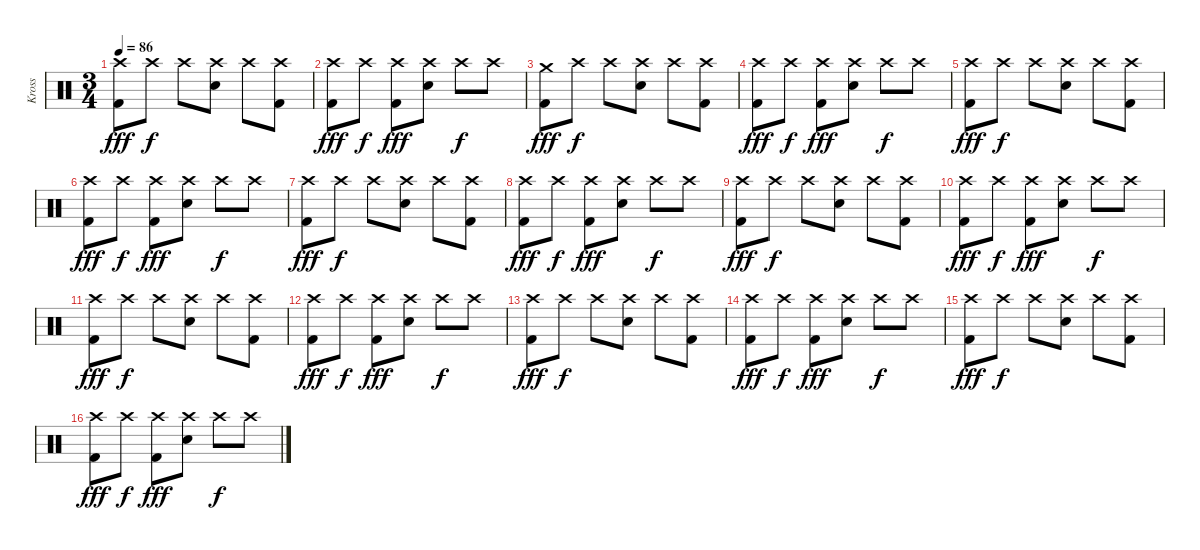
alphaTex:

\track ("Kross" "Kross") {instrument percussion}
\staff {score}
\articulation defaults
\ts (3 4)
\tempo 86
\clef neutral
\ks c
("Crash high (hit)" "Kick (hit) 2").8{dy fff} "Crash high (hit)".8{dy f} "Crash high (hit)".8 ("Crash high (hit)" "Electric Snare (hit)").8 "Crash high (hit)".8 ("Crash high (hit)" "Kick (hit) 2").8 |
("Crash high (hit)" "Kick (hit) 2").8{dy fff} "Crash high (hit)".8{dy f} ("Crash high (hit)" "Kick (hit) 2").8{dy fff} ("Crash high (hit)" "Electric Snare (hit)").8 "Crash high (hit)".8{dy f} "Crash high (hit)".8 |
("Crash medium (hit)" "Kick (hit) 2").8{dy fff} "Crash high (hit)".8{dy f} "Crash high (hit)".8 ("Crash high (hit)" "Electric Snare (hit)").8 "Crash high (hit)".8 ("Crash high (hit)" "Kick (hit) 2").8 |
("Crash high (hit)" "Kick (hit) 2").8{dy fff} "Crash high (hit)".8{dy f} ("Crash high (hit)" "Kick (hit) 2").8{dy fff} ("Crash high (hit)" "Electric Snare (hit)").8 "Crash high (hit)".8{dy f} "Crash high (hit)".8 |
("Crash high (hit)" "Kick (hit) 2").8{dy fff} "Crash high (hit)".8{dy f} "Crash high (hit)".8 ("Crash high (hit)" "Electric Snare (hit)").8 "Crash high (hit)".8 ("Crash high (hit)" "Kick (hit) 2").8 |
("Crash high (hit)" "Kick (hit) 2").8{dy fff} "Crash high (hit)".8{dy f} ("Crash high (hit)" "Kick (hit) 2").8{dy fff} ("Crash high (hit)" "Electric Snare (hit)").8 "Crash high (hit)".8{dy f} "Crash high (hit)".8 |
("Crash high (hit)" "Kick (hit) 2").8{dy fff} "Crash high (hit)".8{dy f} "Crash high (hit)".8 ("Crash high (hit)" "Electric Snare (hit)").8 "Crash high (hit)".8 ("Crash high (hit)" "Kick (hit) 2").8 |
("Crash high (hit)" "Kick (hit) 2").8{dy fff} "Crash high (hit)".8{dy f} ("Crash high (hit)" "Kick (hit) 2").8{dy fff} ("Crash high (hit)" "Electric Snare (hit)").8 "Crash high (hit)".8{dy f} "Crash high (hit)".8 |
("Crash high (hit)" "Kick (hit) 2").8{dy fff} "Crash high (hit)".8{dy f} "Crash high (hit)".8 ("Crash high (hit)" "Electric Snare (hit)").8 "Crash high (hit)".8 ("Crash high (hit)" "Kick (hit) 2").8 |
("Crash high (hit)" "Kick (hit) 2").8{dy fff} "Crash high (hit)".8{dy f} ("Crash high (hit)" "Kick (hit) 2").8{dy fff} ("Crash high (hit)" "Electric Snare (hit)").8 "Crash high (hit)".8{dy f} "Crash high (hit)".8 |
("Crash high (hit)" "Kick (hit) 2").8{dy fff} "Crash high (hit)".8{dy f} "Crash high (hit)".8 ("Crash high (hit)" "Electric Snare (hit)").8 "Crash high (hit)".8 ("Crash high (hit)" "Kick (hit) 2").8 |
("Crash high (hit)" "Kick (hit) 2").8{dy fff} "Crash high (hit)".8{dy f} ("Crash high (hit)" "Kick (hit) 2").8{dy fff} ("Crash high (hit)" "Electric Snare (hit)").8 "Crash high (hit)".8{dy f} "Crash high (hit)".8 |
("Crash high (hit)" "Kick (hit) 2").8{dy fff} "Crash high (hit)".8{dy f} "Crash high (hit)".8 ("Crash high (hit)" "Electric Snare (hit)").8 "Crash high (hit)".8 ("Crash high (hit)" "Kick (hit) 2").8 |
("Crash high (hit)" "Kick (hit) 2").8{dy fff} "Crash high (hit)".8{dy f} ("Crash high (hit)" "Kick (hit) 2").8{dy fff} ("Crash high (hit)" "Electric Snare (hit)").8 "Crash high (hit)".8{dy f} "Crash high (hit)".8 |
("Crash high (hit)" "Kick (hit) 2").8{dy fff} "Crash high (hit)".8{dy f} "Crash high (hit)".8 ("Crash high (hit)" "Electric Snare (hit)").8 "Crash high (hit)".8 ("Crash high (hit)" "Kick (hit) 2").8 |
("Crash high (hit)" "Kick (hit) 2").8{dy fff} "Crash high (hit)".8{dy f} ("Crash high (hit)" "Kick (hit) 2").8{dy fff} ("Crash high (hit)" "Electric Snare (hit)").8 "Crash high (hit)".8{dy f} "Crash high (hit)".8
